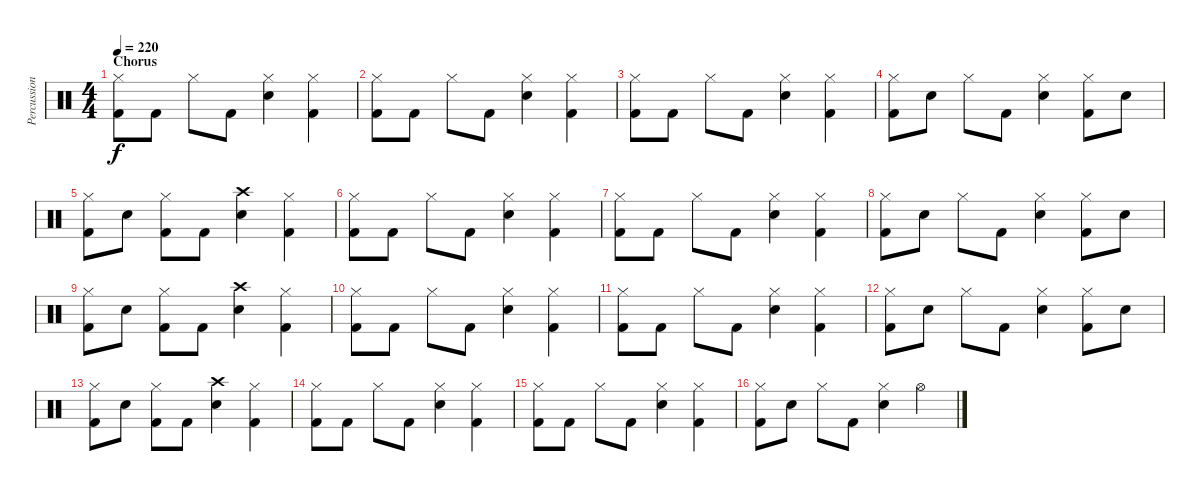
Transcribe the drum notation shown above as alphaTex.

\track ("Percussion" "Percussion") {instrument percussion}
\staff {score}
\articulation defaults
\ts (4 4)
\section ("" "Chorus")
\tempo 220
\clef neutral
\ks c
("Hi-Hat (closed)" "Kick (hit) 2").8{dy f} "Kick (hit) 2".8 "Hi-Hat (closed)".8 "Kick (hit) 2".8 ("Hi-Hat (closed)" "Snare (hit) 2").4 ("Hi-Hat (closed)" "Kick (hit) 2").4 |
("Hi-Hat (closed)" "Kick (hit) 2").8 "Kick (hit) 2".8 "Hi-Hat (closed)".8 "Kick (hit) 2".8 ("Hi-Hat (closed)" "Snare (hit) 2").4 ("Hi-Hat (closed)" "Kick (hit) 2").4 |
("Hi-Hat (closed)" "Kick (hit) 2").8 "Kick (hit) 2".8 "Hi-Hat (closed)".8 "Kick (hit) 2".8 ("Hi-Hat (closed)" "Snare (hit) 2").4 ("Hi-Hat (closed)" "Kick (hit) 2").4 |
("Hi-Hat (closed)" "Kick (hit) 2").8 "Snare (hit) 2".8 "Hi-Hat (closed)".8 "Kick (hit) 2".8 ("Hi-Hat (closed)" "Snare (hit) 2").4 ("Hi-Hat (closed)" "Kick (hit) 2").8 "Snare (hit) 2".8 |
("Hi-Hat (closed)" "Kick (hit) 2").8 "Snare (hit) 2".8 ("Hi-Hat (closed)" "Kick (hit) 2").8 "Kick (hit) 2".8 ("Crash high (hit)" "Snare (hit) 2").4 ("Hi-Hat (closed)" "Kick (hit) 2").4 |
("Hi-Hat (closed)" "Kick (hit) 2").8 "Kick (hit) 2".8 "Hi-Hat (closed)".8 "Kick (hit) 2".8 ("Hi-Hat (closed)" "Snare (hit) 2").4 ("Hi-Hat (closed)" "Kick (hit) 2").4 |
("Hi-Hat (closed)" "Kick (hit) 2").8 "Kick (hit) 2".8 "Hi-Hat (closed)".8 "Kick (hit) 2".8 ("Hi-Hat (closed)" "Snare (hit) 2").4 ("Hi-Hat (closed)" "Kick (hit) 2").4 |
("Hi-Hat (closed)" "Kick (hit) 2").8 "Snare (hit) 2".8 "Hi-Hat (closed)".8 "Kick (hit) 2".8 ("Hi-Hat (closed)" "Snare (hit) 2").4 ("Hi-Hat (closed)" "Kick (hit) 2").8 "Snare (hit) 2".8 |
("Hi-Hat (closed)" "Kick (hit) 2").8 "Snare (hit) 2".8 ("Hi-Hat (closed)" "Kick (hit) 2").8 "Kick (hit) 2".8 ("Crash high (hit)" "Snare (hit) 2").4 ("Hi-Hat (closed)" "Kick (hit) 2").4 |
("Hi-Hat (closed)" "Kick (hit) 2").8 "Kick (hit) 2".8 "Hi-Hat (closed)".8 "Kick (hit) 2".8 ("Hi-Hat (closed)" "Snare (hit) 2").4 ("Hi-Hat (closed)" "Kick (hit) 2").4 |
("Hi-Hat (closed)" "Kick (hit) 2").8 "Kick (hit) 2".8 "Hi-Hat (closed)".8 "Kick (hit) 2".8 ("Hi-Hat (closed)" "Snare (hit) 2").4 ("Hi-Hat (closed)" "Kick (hit) 2").4 |
("Hi-Hat (closed)" "Kick (hit) 2").8 "Snare (hit) 2".8 "Hi-Hat (closed)".8 "Kick (hit) 2".8 ("Hi-Hat (closed)" "Snare (hit) 2").4 ("Hi-Hat (closed)" "Kick (hit) 2").8 "Snare (hit) 2".8 |
("Hi-Hat (closed)" "Kick (hit) 2").8 "Snare (hit) 2".8 ("Hi-Hat (closed)" "Kick (hit) 2").8 "Kick (hit) 2".8 ("Crash high (hit)" "Snare (hit) 2").4 ("Hi-Hat (closed)" "Kick (hit) 2").4 |
("Hi-Hat (closed)" "Kick (hit) 2").8 "Kick (hit) 2".8 "Hi-Hat (closed)".8 "Kick (hit) 2".8 ("Hi-Hat (closed)" "Snare (hit) 2").4 ("Hi-Hat (closed)" "Kick (hit) 2").4 |
("Hi-Hat (closed)" "Kick (hit) 2").8 "Kick (hit) 2".8 "Hi-Hat (closed)".8 "Kick (hit) 2".8 ("Hi-Hat (closed)" "Snare (hit) 2").4 ("Hi-Hat (closed)" "Kick (hit) 2").4 |
("Hi-Hat (closed)" "Kick (hit) 2").8 "Snare (hit) 2".8 "Hi-Hat (closed)".8 "Kick (hit) 2".8 ("Hi-Hat (closed)" "Snare (hit) 2").4 "Hi-Hat (open)".4
